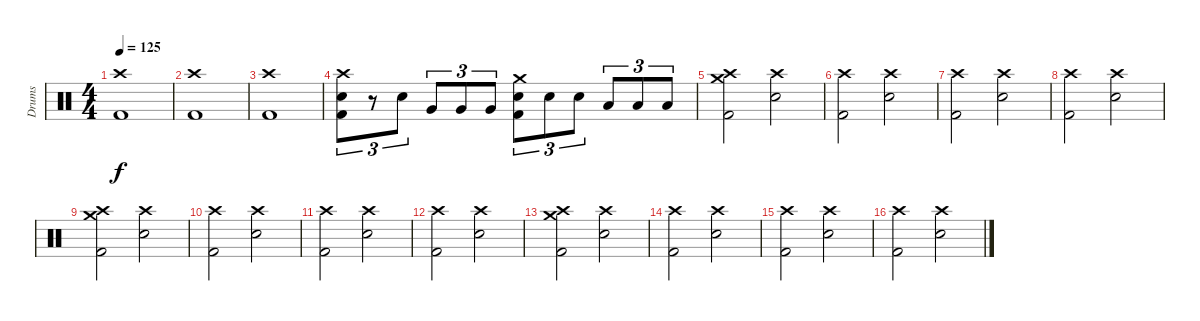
\track ("Drums" "Drums") {instrument percussion}
\staff {score}
\articulation defaults
\ts (4 4)
\tempo 125
\clef neutral
\ks c
("Crash high (hit)" "Kick (hit) 2").1{dy f} |
("Crash high (hit)" "Kick (hit) 2").1 |
("Crash high (hit)" "Kick (hit) 2").1 |
("Crash high (hit)" "Snare (hit) 2" "Kick (hit) 2").8{tu (3 2)} r.8{tu (3 2)} "Snare (hit) 2".8{tu (3 2)} "Very Low Tom (hit)".8{tu (3 2)} "Very Low Tom (hit)".8{tu (3 2)} "Very Low Tom (hit)".8{tu (3 2)} ("Crash medium (hit)" "Snare (hit) 2" "Kick (hit) 2").8{tu (3 2)} "Snare (hit) 2".8{tu (3 2)} "Snare (hit) 2".8{tu (3 2)} "Low Floor Tom (hit)".8{tu (3 2)} "Low Floor Tom (hit)".8{tu (3 2)} "Low Floor Tom (hit)".8{tu (3 2)} |
("Crash medium (hit)" "Crash high (hit)" "Kick (hit) 2").2 ("Crash high (hit)" "Snare (hit) 2").2 |
("Crash high (hit)" "Kick (hit) 2").2 ("Crash high (hit)" "Snare (hit) 2").2 |
("Crash high (hit)" "Kick (hit) 2").2 ("Crash high (hit)" "Snare (hit) 2").2 |
("Crash high (hit)" "Kick (hit) 2").2 ("Crash high (hit)" "Snare (hit) 2").2 |
("Crash medium (hit)" "Crash high (hit)" "Kick (hit) 2").2 ("Crash high (hit)" "Snare (hit) 2").2 |
("Crash high (hit)" "Kick (hit) 2").2 ("Crash high (hit)" "Snare (hit) 2").2 |
("Crash high (hit)" "Kick (hit) 2").2 ("Crash high (hit)" "Snare (hit) 2").2 |
("Crash high (hit)" "Kick (hit) 2").2 ("Crash high (hit)" "Snare (hit) 2").2 |
("Crash medium (hit)" "Crash high (hit)" "Kick (hit) 2").2 ("Crash high (hit)" "Snare (hit) 2").2 |
("Crash high (hit)" "Kick (hit) 2").2 ("Crash high (hit)" "Snare (hit) 2").2 |
("Crash high (hit)" "Kick (hit) 2").2 ("Crash high (hit)" "Snare (hit) 2").2 |
("Crash high (hit)" "Kick (hit) 2").2 ("Crash high (hit)" "Snare (hit) 2").2
